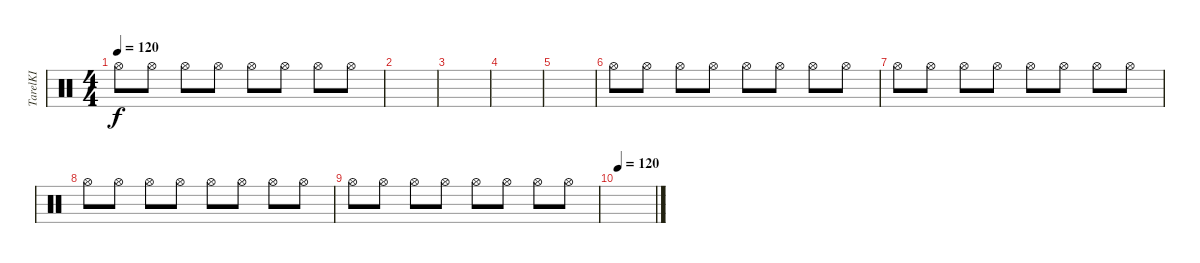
\track ("TarelKI" "TarelKI") {instrument percussion}
\staff {score}
\articulation defaults
\ts (4 4)
\tempo 120
\clef neutral
\ks c "Hi-Hat (open)".8{dy f} "Hi-Hat (open)".8 "Hi-Hat (open)".8 "Hi-Hat (open)".8 "Hi-Hat (open)".8 "Hi-Hat (open)".8 "Hi-Hat (open)".8 "Hi-Hat (open)".8
|
|
|
|
|
"Hi-Hat (open)".8 "Hi-Hat (open)".8 "Hi-Hat (open)".8 "Hi-Hat (open)".8 "Hi-Hat (open)".8 "Hi-Hat (open)".8 "Hi-Hat (open)".8 "Hi-Hat (open)".8 |
"Hi-Hat (open)".8 "Hi-Hat (open)".8 "Hi-Hat (open)".8 "Hi-Hat (open)".8 "Hi-Hat (open)".8 "Hi-Hat (open)".8 "Hi-Hat (open)".8 "Hi-Hat (open)".8 |
"Hi-Hat (open)".8 "Hi-Hat (open)".8 "Hi-Hat (open)".8 "Hi-Hat (open)".8 "Hi-Hat (open)".8 "Hi-Hat (open)".8 "Hi-Hat (open)".8 "Hi-Hat (open)".8 |
"Hi-Hat (open)".8 "Hi-Hat (open)".8 "Hi-Hat (open)".8 "Hi-Hat (open)".8 "Hi-Hat (open)".8 "Hi-Hat (open)".8 "Hi-Hat (open)".8 "Hi-Hat (open)".8 |
\tempo 120
